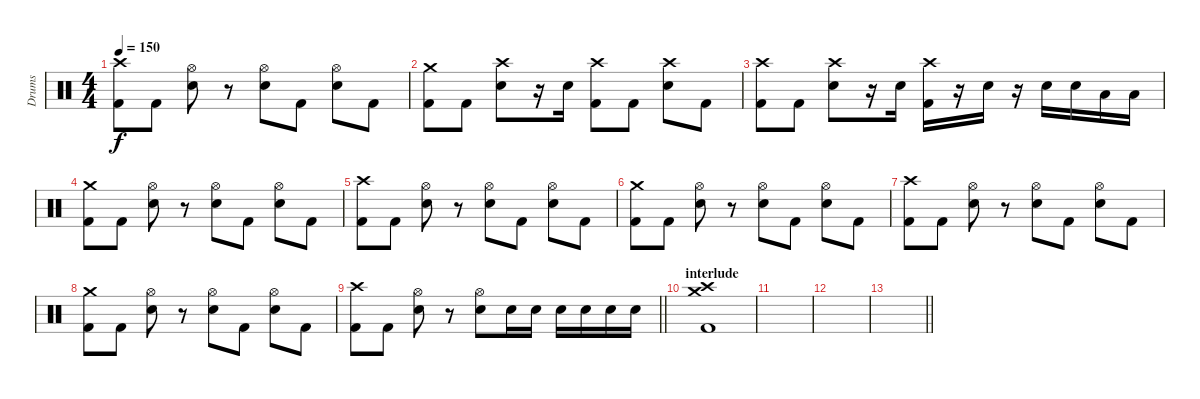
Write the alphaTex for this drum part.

\track ("Drums" "Drums") {instrument percussion}
\staff {score}
\articulation defaults
\ts (4 4)
\tempo 150
\clef neutral
\ks c
("Kick (hit) 2" "Crash high (hit)").8{dy f} "Kick (hit) 2".8 ("Electric Snare (hit)" "Hi-Hat (open)").8 r.8 ("Electric Snare (hit)" "Hi-Hat (open)").8 "Kick (hit) 2".8 ("Electric Snare (hit)" "Hi-Hat (open)").8 "Kick (hit) 2".8 |
("Kick (hit) 2" "Crash medium (hit)").8 "Kick (hit) 2".8 ("Electric Snare (hit)" "Crash high (hit)").8 r.16 "Electric Snare (hit)".16 ("Kick (hit) 2" "Crash high (hit)").8 "Kick (hit) 2".8 ("Electric Snare (hit)" "Crash high (hit)").8 "Kick (hit) 2".8 |
("Kick (hit) 2" "Crash high (hit)").8 "Kick (hit) 2".8 ("Electric Snare (hit)" "Crash high (hit)").8 r.16 "Electric Snare (hit)".16 ("Kick (hit) 2" "Crash high (hit)").16 r.16 "Electric Snare (hit)".16 r.16 "Electric Snare (hit)".16 "Electric Snare (hit)".16 "Low Tom (hit)".16 "Low Tom (hit)".16 |
("Kick (hit) 2" "Crash medium (hit)").8 "Kick (hit) 2".8 ("Electric Snare (hit)" "Hi-Hat (open)").8 r.8 ("Electric Snare (hit)" "Hi-Hat (open)").8 "Kick (hit) 2".8 ("Electric Snare (hit)" "Hi-Hat (open)").8 "Kick (hit) 2".8 |
("Kick (hit) 2" "Crash high (hit)").8 "Kick (hit) 2".8 ("Electric Snare (hit)" "Hi-Hat (open)").8 r.8 ("Electric Snare (hit)" "Hi-Hat (open)").8 "Kick (hit) 2".8 ("Electric Snare (hit)" "Hi-Hat (open)").8 "Kick (hit) 2".8 |
("Kick (hit) 2" "Crash medium (hit)").8 "Kick (hit) 2".8 ("Electric Snare (hit)" "Hi-Hat (open)").8 r.8 ("Electric Snare (hit)" "Hi-Hat (open)").8 "Kick (hit) 2".8 ("Electric Snare (hit)" "Hi-Hat (open)").8 "Kick (hit) 2".8 |
("Kick (hit) 2" "Crash high (hit)").8 "Kick (hit) 2".8 ("Electric Snare (hit)" "Hi-Hat (open)").8 r.8 ("Electric Snare (hit)" "Hi-Hat (open)").8 "Kick (hit) 2".8 ("Electric Snare (hit)" "Hi-Hat (open)").8 "Kick (hit) 2".8 |
("Kick (hit) 2" "Crash medium (hit)").8 "Kick (hit) 2".8 ("Electric Snare (hit)" "Hi-Hat (open)").8 r.8 ("Electric Snare (hit)" "Hi-Hat (open)").8 "Kick (hit) 2".8 ("Electric Snare (hit)" "Hi-Hat (open)").8 "Kick (hit) 2".8 |
\barLineRight lightlight
("Kick (hit) 2" "Crash high (hit)").8 "Kick (hit) 2".8 ("Electric Snare (hit)" "Hi-Hat (open)").8 r.8 ("Electric Snare (hit)" "Hi-Hat (open)").8 "Electric Snare (hit)".16 "Electric Snare (hit)".16 "Electric Snare (hit)".16 "Electric Snare (hit)".16 "Electric Snare (hit)".16 "Electric Snare (hit)".16 |
\section ("" "interlude")
("Kick (hit) 2" "Crash high (hit)" "Crash medium (hit)").1 |
|
|
\barLineRight lightlight
